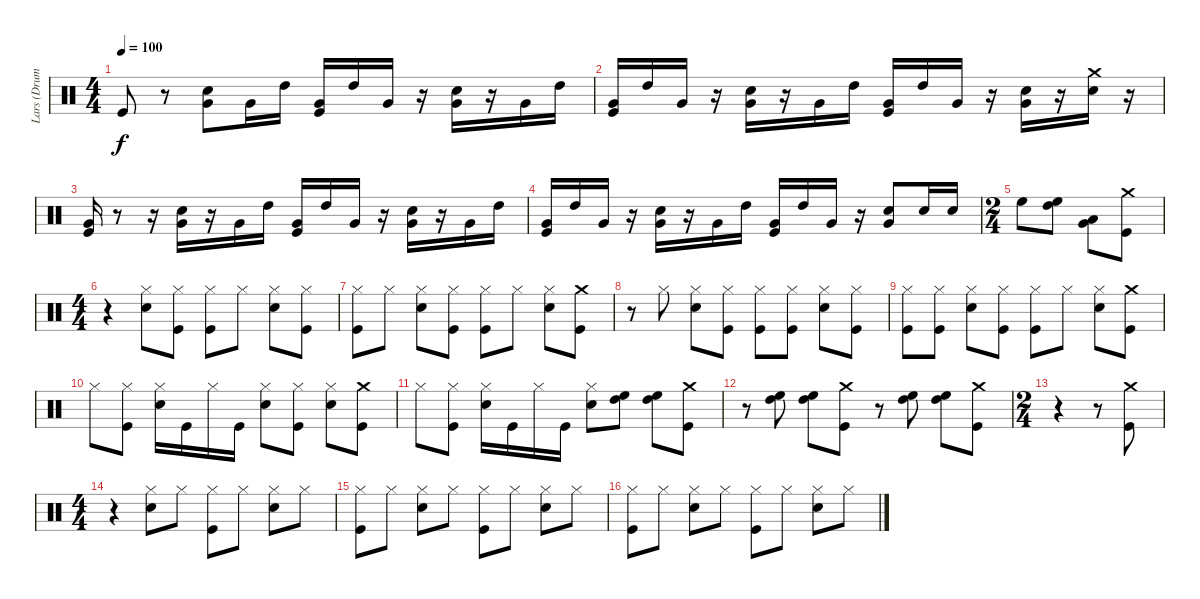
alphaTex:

\track ("Lars (Drums)" "Lars (Drum") {instrument percussion}
\staff {score}
\articulation defaults
\ts (4 4)
\tempo 100
\clef neutral
\ks c "Kick (hit)".8{dy f}
r.8 ("Very Low Tom (hit)" "Snare (hit) 2").8 "Very Low Tom (hit)".16 "High Tom (hit)".16 ("Very Low Tom (hit)" "Kick (hit)").16 "High Tom (hit)".16 "Very Low Tom (hit)".16 r.16 ("Very Low Tom (hit)" "Snare (hit) 2").16 r.16 "Very Low Tom (hit)".16 "High Tom (hit)".16 |
("Very Low Tom (hit)" "Kick (hit)").16 "High Tom (hit)".16 "Very Low Tom (hit)".16 r.16 ("Very Low Tom (hit)" "Snare (hit) 2").16 r.16 "Very Low Tom (hit)".16 "High Tom (hit)".16 ("Very Low Tom (hit)" "Kick (hit)").16 "High Tom (hit)".16 "Very Low Tom (hit)".16 r.16 ("Very Low Tom (hit)" "Snare (hit) 2").16 r.16 ("Crash medium (hit)" "Snare (hit) 2").16 r.16 |
("Very Low Tom (hit)" "Kick (hit)").16 r.8 r.16 ("Very Low Tom (hit)" "Snare (hit) 2").16 r.16 "Very Low Tom (hit)".16 "High Tom (hit)".16 ("Very Low Tom (hit)" "Kick (hit)").16 "High Tom (hit)".16 "Very Low Tom (hit)".16 r.16 ("Very Low Tom (hit)" "Snare (hit) 2").16 r.16 "Very Low Tom (hit)".16 "High Tom (hit)".16 |
("Very Low Tom (hit)" "Kick (hit)").16 "High Tom (hit)".16 "Very Low Tom (hit)".16 r.16 ("Very Low Tom (hit)" "Snare (hit) 2").16 r.16 "Very Low Tom (hit)".16 "High Tom (hit)".16 ("Very Low Tom (hit)" "Kick (hit)").16 "High Tom (hit)".16 "Very Low Tom (hit)".16 r.16 ("Very Low Tom (hit)" "Snare (hit) 2").8 "Snare (hit) 2".16 "Snare (hit) 2".16 |
\ts (2 4)
"High Floor Tom (hit)".8 ("High Tom (hit)" "High Floor Tom (hit)").8 ("Low Floor Tom (hit)" "Very Low Tom (hit)").8 ("Crash medium (hit)" "Kick (hit)").8 |
\ts (4 4)
r.4 ("Snare (hit) 2" "Hi-Hat (closed)").8 ("Hi-Hat (closed)" "Kick (hit)").8 ("Kick (hit)" "Hi-Hat (closed)").8 "Hi-Hat (closed)".8 ("Snare (hit) 2" "Hi-Hat (closed)").8 ("Kick (hit)" "Hi-Hat (closed)").8 |
("Hi-Hat (closed)" "Kick (hit)").8 "Hi-Hat (closed)".8 ("Snare (hit) 2" "Hi-Hat (closed)").8 ("Kick (hit)" "Hi-Hat (closed)").8 ("Hi-Hat (closed)" "Kick (hit)").8 "Hi-Hat (closed)".8 ("Snare (hit) 2" "Hi-Hat (closed)").8 ("Crash medium (hit)" "Kick (hit)").8 |
r.8 "Hi-Hat (closed)".8 ("Snare (hit) 2" "Hi-Hat (closed)").8 ("Hi-Hat (closed)" "Kick (hit)").8 ("Hi-Hat (closed)" "Kick (hit)").8 ("Kick (hit)" "Hi-Hat (closed)").8 ("Snare (hit) 2" "Hi-Hat (closed)").8 ("Kick (hit)" "Hi-Hat (closed)").8 |
("Hi-Hat (closed)" "Kick (hit)").8 ("Kick (hit)" "Hi-Hat (closed)").8 ("Snare (hit) 2" "Hi-Hat (closed)").8 ("Kick (hit)" "Hi-Hat (closed)").8 ("Hi-Hat (closed)" "Kick (hit)").8 "Hi-Hat (closed)".8 ("Snare (hit) 2" "Hi-Hat (closed)").8 ("Crash medium (hit)" "Kick (hit)").8 |
"Hi-Hat (closed)".8 ("Kick (hit)" "Hi-Hat (closed)").8 ("Snare (hit) 2" "Hi-Hat (closed)").16 "Kick (hit)".16 "Hi-Hat (closed)".16 "Kick (hit)".16 ("Snare (hit) 2" "Hi-Hat (closed)").8 ("Kick (hit)" "Hi-Hat (closed)").8 ("Hi-Hat (closed)" "Snare (hit) 2").8 ("Crash medium (hit)" "Kick (hit)").8 |
"Hi-Hat (closed)".8 ("Kick (hit)" "Hi-Hat (closed)").8 ("Snare (hit) 2" "Hi-Hat (closed)").16 "Kick (hit)".16 "Hi-Hat (closed)".16 "Kick (hit)".16 ("Snare (hit) 2" "Hi-Hat (closed)").8 ("High Tom (hit)" "High Floor Tom (hit)").8 ("High Floor Tom (hit)" "High Tom (hit)").8 ("Crash medium (hit)" "Kick (hit)").8 |
r.8 ("High Tom (hit)" "High Floor Tom (hit)").8 ("High Floor Tom (hit)" "High Tom (hit)").8 ("Crash medium (hit)" "Kick (hit)").8 r.8 ("High Tom (hit)" "High Floor Tom (hit)").8 ("High Floor Tom (hit)" "High Tom (hit)").8 ("Crash medium (hit)" "Kick (hit)").8 |
\ts (2 4)
r.4 r.8 ("Crash medium (hit)" "Kick (hit)").8 |
\ts (4 4)
r.4 ("Hi-Hat (closed)" "Snare (hit) 2").8 "Hi-Hat (closed)".8 ("Kick (hit)" "Hi-Hat (closed)").8 "Hi-Hat (closed)".8 ("Snare (hit) 2" "Hi-Hat (closed)").8 "Hi-Hat (closed)".8 |
("Hi-Hat (closed)" "Kick (hit)").8 "Hi-Hat (closed)".8 ("Snare (hit) 2" "Hi-Hat (closed)").8 "Hi-Hat (closed)".8 ("Hi-Hat (closed)" "Kick (hit)").8 "Hi-Hat (closed)".8 ("Snare (hit) 2" "Hi-Hat (closed)").8 "Hi-Hat (closed)".8 |
("Hi-Hat (closed)" "Kick (hit)").8 "Hi-Hat (closed)".8 ("Hi-Hat (closed)" "Snare (hit) 2").8 "Hi-Hat (closed)".8 ("Hi-Hat (closed)" "Kick (hit)").8 "Hi-Hat (closed)".8 ("Snare (hit) 2" "Hi-Hat (closed)").8 "Hi-Hat (closed)".8
